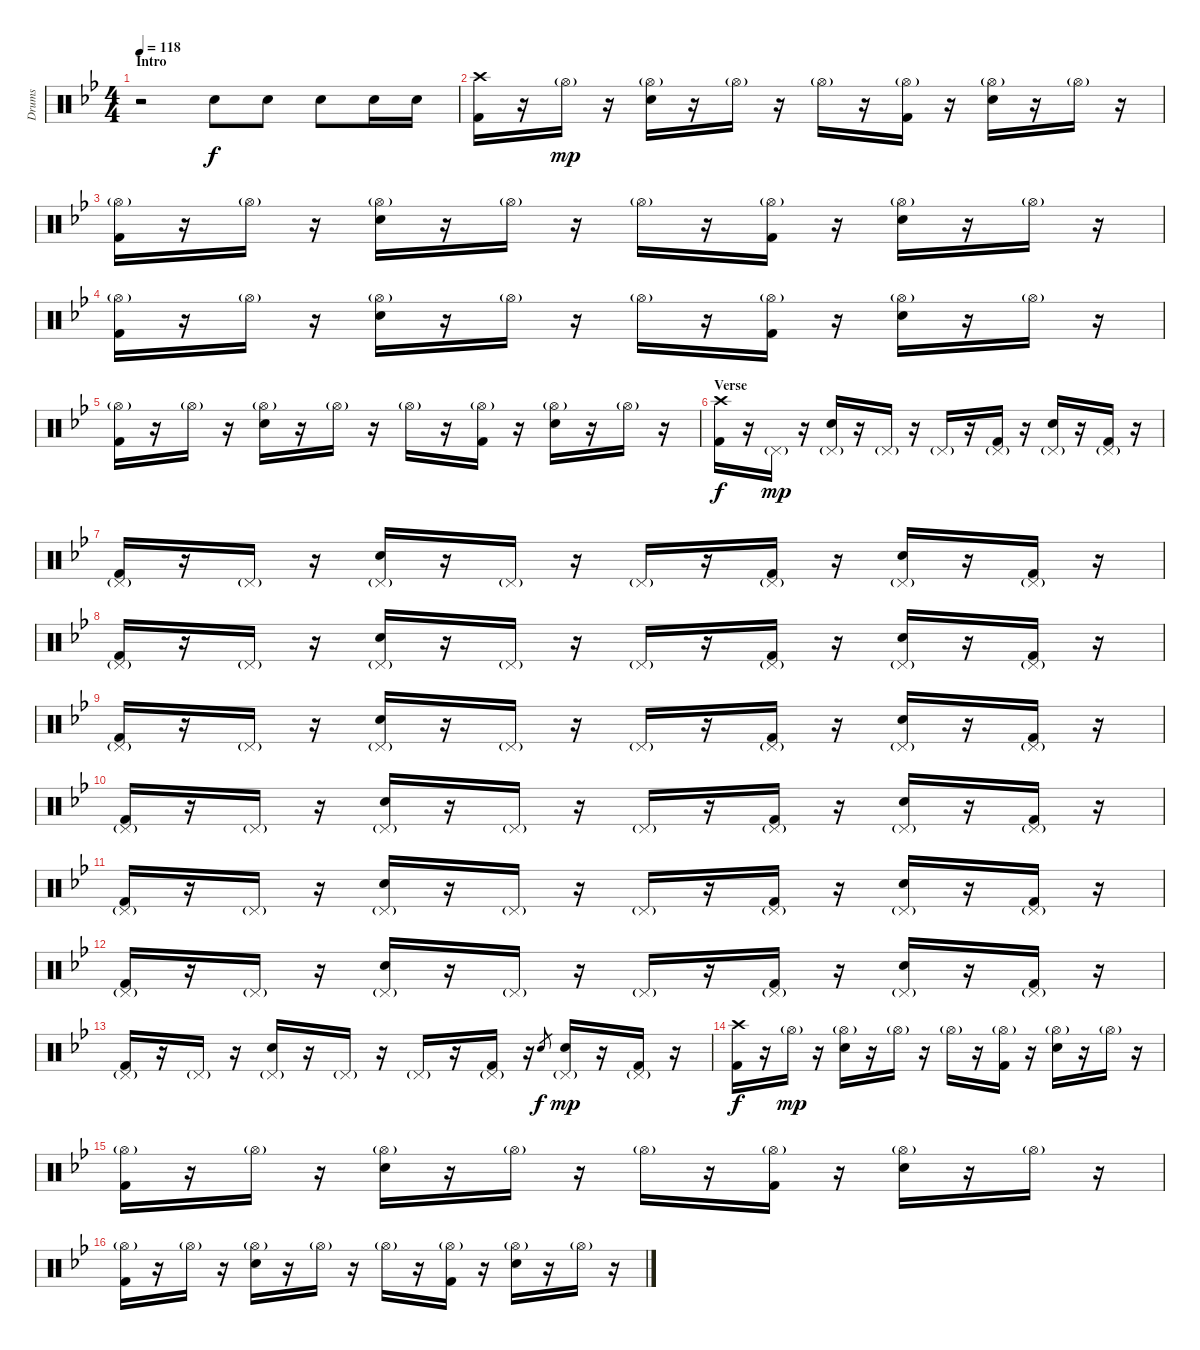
\track ("Drums" "Drums") {instrument percussion}
\staff {score}
\articulation defaults
\ts (4 4)
\section ("" "Intro")
\tempo 118
\clef neutral
\ks bb
r.2{dy f} "Electric Snare (hit)".8 "Electric Snare (hit)".8 "Electric Snare (hit)".8 "Electric Snare (hit)".16 "Electric Snare (hit)".16 |
("Crash high (hit)" "Kick (hit) 2").16 r.16 "Hi-Hat (open)"{g}.16{dy mp} r.16 ("Hi-Hat (open)"{g} "Electric Snare (hit)").16 r.16 "Hi-Hat (open)"{g}.16 r.16 "Hi-Hat (open)"{g}.16 r.16 ("Hi-Hat (open)"{g} "Kick (hit) 2").16 r.16 ("Hi-Hat (open)"{g} "Electric Snare (hit)").16 r.16 "Hi-Hat (open)"{g}.16 r.16 |
("Hi-Hat (open)"{g} "Kick (hit) 2").16 r.16 "Hi-Hat (open)"{g}.16 r.16 ("Hi-Hat (open)"{g} "Electric Snare (hit)").16 r.16 "Hi-Hat (open)"{g}.16 r.16 "Hi-Hat (open)"{g}.16 r.16 ("Hi-Hat (open)"{g} "Kick (hit) 2").16 r.16 ("Hi-Hat (open)"{g} "Electric Snare (hit)").16 r.16 "Hi-Hat (open)"{g}.16 r.16 |
("Hi-Hat (open)"{g} "Kick (hit) 2").16 r.16 "Hi-Hat (open)"{g}.16 r.16 ("Hi-Hat (open)"{g} "Electric Snare (hit)").16 r.16 "Hi-Hat (open)"{g}.16 r.16 "Hi-Hat (open)"{g}.16 r.16 ("Hi-Hat (open)"{g} "Kick (hit) 2").16 r.16 ("Hi-Hat (open)"{g} "Electric Snare (hit)").16 r.16 "Hi-Hat (open)"{g}.16 r.16 |
("Hi-Hat (open)"{g} "Kick (hit) 2").16 r.16 "Hi-Hat (open)"{g}.16 r.16 ("Hi-Hat (open)"{g} "Electric Snare (hit)").16 r.16 "Hi-Hat (open)"{g}.16 r.16 "Hi-Hat (open)"{g}.16 r.16 ("Hi-Hat (open)"{g} "Kick (hit) 2").16 r.16 ("Hi-Hat (open)"{g} "Electric Snare (hit)").16 r.16 "Hi-Hat (open)"{g}.16 r.16 |
\section ("" "Verse")
("Crash high (hit)" "Kick (hit) 2").16{dy f} r.16 "Pedal Hi-Hat (hit)"{g}.16{dy mp} r.16 ("Pedal Hi-Hat (hit)"{g} "Electric Snare (hit)").16 r.16 "Pedal Hi-Hat (hit)"{g}.16 r.16 "Pedal Hi-Hat (hit)"{g}.16 r.16 ("Pedal Hi-Hat (hit)"{g} "Kick (hit) 2").16 r.16 ("Pedal Hi-Hat (hit)"{g} "Electric Snare (hit)").16 r.16 ("Pedal Hi-Hat (hit)"{g} "Kick (hit) 2").16 r.16 |
("Pedal Hi-Hat (hit)"{g} "Kick (hit) 2").16 r.16 "Pedal Hi-Hat (hit)"{g}.16 r.16 ("Pedal Hi-Hat (hit)"{g} "Electric Snare (hit)").16 r.16 "Pedal Hi-Hat (hit)"{g}.16 r.16 "Pedal Hi-Hat (hit)"{g}.16 r.16 ("Pedal Hi-Hat (hit)"{g} "Kick (hit) 2").16 r.16 ("Pedal Hi-Hat (hit)"{g} "Electric Snare (hit)").16 r.16 ("Pedal Hi-Hat (hit)"{g} "Kick (hit) 2").16 r.16 |
("Pedal Hi-Hat (hit)"{g} "Kick (hit) 2").16 r.16 "Pedal Hi-Hat (hit)"{g}.16 r.16 ("Pedal Hi-Hat (hit)"{g} "Electric Snare (hit)").16 r.16 "Pedal Hi-Hat (hit)"{g}.16 r.16 "Pedal Hi-Hat (hit)"{g}.16 r.16 ("Pedal Hi-Hat (hit)"{g} "Kick (hit) 2").16 r.16 ("Pedal Hi-Hat (hit)"{g} "Electric Snare (hit)").16 r.16 ("Pedal Hi-Hat (hit)"{g} "Kick (hit) 2").16 r.16 |
("Pedal Hi-Hat (hit)"{g} "Kick (hit) 2").16 r.16 "Pedal Hi-Hat (hit)"{g}.16 r.16 ("Pedal Hi-Hat (hit)"{g} "Electric Snare (hit)").16 r.16 "Pedal Hi-Hat (hit)"{g}.16 r.16 "Pedal Hi-Hat (hit)"{g}.16 r.16 ("Pedal Hi-Hat (hit)"{g} "Kick (hit) 2").16 r.16 ("Pedal Hi-Hat (hit)"{g} "Electric Snare (hit)").16 r.16 ("Pedal Hi-Hat (hit)"{g} "Kick (hit) 2").16 r.16 |
("Pedal Hi-Hat (hit)"{g} "Kick (hit) 2").16 r.16 "Pedal Hi-Hat (hit)"{g}.16 r.16 ("Pedal Hi-Hat (hit)"{g} "Electric Snare (hit)").16 r.16 "Pedal Hi-Hat (hit)"{g}.16 r.16 "Pedal Hi-Hat (hit)"{g}.16 r.16 ("Pedal Hi-Hat (hit)"{g} "Kick (hit) 2").16 r.16 ("Pedal Hi-Hat (hit)"{g} "Electric Snare (hit)").16 r.16 ("Pedal Hi-Hat (hit)"{g} "Kick (hit) 2").16 r.16 |
("Pedal Hi-Hat (hit)"{g} "Kick (hit) 2").16 r.16 "Pedal Hi-Hat (hit)"{g}.16 r.16 ("Pedal Hi-Hat (hit)"{g} "Electric Snare (hit)").16 r.16 "Pedal Hi-Hat (hit)"{g}.16 r.16 "Pedal Hi-Hat (hit)"{g}.16 r.16 ("Pedal Hi-Hat (hit)"{g} "Kick (hit) 2").16 r.16 ("Pedal Hi-Hat (hit)"{g} "Electric Snare (hit)").16 r.16 ("Pedal Hi-Hat (hit)"{g} "Kick (hit) 2").16 r.16 |
("Pedal Hi-Hat (hit)"{g} "Kick (hit) 2").16 r.16 "Pedal Hi-Hat (hit)"{g}.16 r.16 ("Pedal Hi-Hat (hit)"{g} "Electric Snare (hit)").16 r.16 "Pedal Hi-Hat (hit)"{g}.16 r.16 "Pedal Hi-Hat (hit)"{g}.16 r.16 ("Pedal Hi-Hat (hit)"{g} "Kick (hit) 2").16 r.16 ("Pedal Hi-Hat (hit)"{g} "Electric Snare (hit)").16 r.16 ("Pedal Hi-Hat (hit)"{g} "Kick (hit) 2").16 r.16 |
("Pedal Hi-Hat (hit)"{g} "Kick (hit) 2").16 r.16 "Pedal Hi-Hat (hit)"{g}.16 r.16 ("Pedal Hi-Hat (hit)"{g} "Electric Snare (hit)").16 r.16 "Pedal Hi-Hat (hit)"{g}.16 r.16 "Pedal Hi-Hat (hit)"{g}.16 r.16 ("Pedal Hi-Hat (hit)"{g} "Kick (hit) 2").16 r.16 "Electric Snare (hit)".8{gr dy f} ("Pedal Hi-Hat (hit)"{g} "Electric Snare (hit)").16{dy mp} r.16 ("Pedal Hi-Hat (hit)"{g} "Kick (hit) 2").16 r.16 |
("Crash high (hit)" "Kick (hit) 2").16{dy f} r.16 "Hi-Hat (open)"{g}.16{dy mp} r.16 ("Hi-Hat (open)"{g} "Electric Snare (hit)").16 r.16 "Hi-Hat (open)"{g}.16 r.16 "Hi-Hat (open)"{g}.16 r.16 ("Hi-Hat (open)"{g} "Kick (hit) 2").16 r.16 ("Hi-Hat (open)"{g} "Electric Snare (hit)").16 r.16 "Hi-Hat (open)"{g}.16 r.16 |
("Hi-Hat (open)"{g} "Kick (hit) 2").16 r.16 "Hi-Hat (open)"{g}.16 r.16 ("Hi-Hat (open)"{g} "Electric Snare (hit)").16 r.16 "Hi-Hat (open)"{g}.16 r.16 "Hi-Hat (open)"{g}.16 r.16 ("Hi-Hat (open)"{g} "Kick (hit) 2").16 r.16 ("Hi-Hat (open)"{g} "Electric Snare (hit)").16 r.16 "Hi-Hat (open)"{g}.16 r.16 |
("Hi-Hat (open)"{g} "Kick (hit) 2").16 r.16 "Hi-Hat (open)"{g}.16 r.16 ("Hi-Hat (open)"{g} "Electric Snare (hit)").16 r.16 "Hi-Hat (open)"{g}.16 r.16 "Hi-Hat (open)"{g}.16 r.16 ("Hi-Hat (open)"{g} "Kick (hit) 2").16 r.16 ("Hi-Hat (open)"{g} "Electric Snare (hit)").16 r.16 "Hi-Hat (open)"{g}.16 r.16
